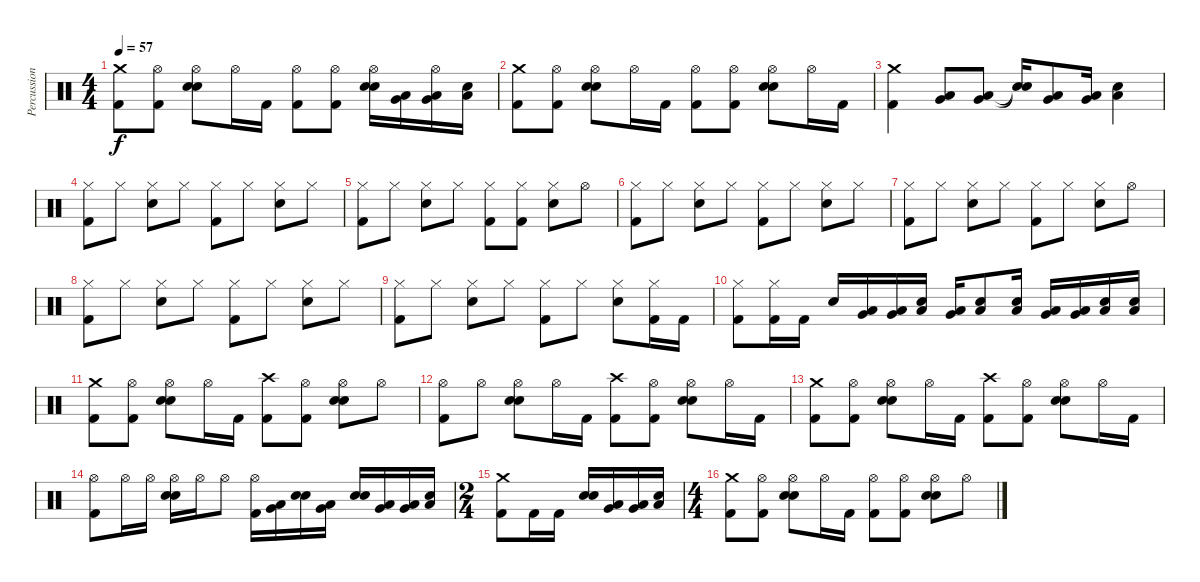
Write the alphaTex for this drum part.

\track ("Percussion" "Percussion") {instrument percussion}
\staff {score}
\articulation defaults
\ts (4 4)
\tempo 57
\clef neutral
\ks c
("Crash medium (hit)" "Kick (hit) 2").8{dy f} ("Hi-Hat (open)" "Kick (hit) 2").8 ("Hi-Hat (open)" "Electric Snare (hit)" "Metronome (bell)").8 "Hi-Hat (open)".16 "Kick (hit) 2".16 ("Hi-Hat (open)" "Kick (hit) 2").8 ("Hi-Hat (open)" "Kick (hit) 2").8 ("Hi-Hat (open)" "Electric Snare (hit)" "Metronome (bell)").16 ("Low Tom (hit)" "Very Low Tom (hit)").16 ("Hi-Hat (open)" "Very Low Tom (hit)" "Low Floor Tom (hit)").16 ("Low Floor Tom (hit)" "Snare (hit)").16 |
("Crash medium (hit)" "Kick (hit) 2").8 ("Hi-Hat (open)" "Kick (hit) 2").8 ("Hi-Hat (open)" "Electric Snare (hit)" "Metronome (bell)").8 "Hi-Hat (open)".16 "Kick (hit) 2".16 ("Hi-Hat (open)" "Kick (hit) 2").8 ("Hi-Hat (open)" "Kick (hit) 2").8 ("Hi-Hat (open)" "Electric Snare (hit)" "Metronome (bell)").8 "Hi-Hat (open)".16 "Kick (hit) 2".16 |
("Crash medium (hit)" "Kick (hit) 2").4 ("Low Tom (hit)" "Very Low Tom (hit)").8 ("Very Low Tom (hit)" "Low Floor Tom (hit)").8 ("Snare (hit)"{t} "Snare (hit)"{t}).16 ("Low Tom (hit)" "Very Low Tom (hit)").8 ("Very Low Tom (hit)" "Low Floor Tom (hit)").16 ("Low Floor Tom (hit)" "Snare (hit)").4 |
("Hi-Hat (closed)" "Kick (hit) 2").8 "Hi-Hat (closed)".8 ("Hi-Hat (closed)" "Metronome (bell)").8 "Hi-Hat (closed)".8 ("Hi-Hat (closed)" "Kick (hit) 2").8 "Hi-Hat (closed)".8 ("Hi-Hat (closed)" "Metronome (bell)").8 "Hi-Hat (closed)".8 |
("Hi-Hat (closed)" "Kick (hit) 2").8 "Hi-Hat (closed)".8 ("Hi-Hat (closed)" "Metronome (bell)").8 "Hi-Hat (closed)".8 ("Hi-Hat (closed)" "Kick (hit) 2").8 ("Hi-Hat (closed)" "Kick (hit) 2").8 ("Hi-Hat (closed)" "Metronome (bell)").8 "Hi-Hat (open)".8 |
("Hi-Hat (closed)" "Kick (hit) 2").8 "Hi-Hat (closed)".8 ("Hi-Hat (closed)" "Metronome (bell)").8 "Hi-Hat (closed)".8 ("Hi-Hat (closed)" "Kick (hit) 2").8 "Hi-Hat (closed)".8 ("Hi-Hat (closed)" "Metronome (bell)").8 "Hi-Hat (closed)".8 |
("Hi-Hat (closed)" "Kick (hit) 2").8 "Hi-Hat (closed)".8 ("Hi-Hat (closed)" "Metronome (bell)").8 "Hi-Hat (closed)".8 ("Hi-Hat (closed)" "Kick (hit) 2").8 "Hi-Hat (closed)".8 ("Hi-Hat (closed)" "Metronome (bell)").8 "Hi-Hat (open)".8 |
("Hi-Hat (closed)" "Kick (hit) 2").8 "Hi-Hat (closed)".8 ("Hi-Hat (closed)" "Metronome (bell)").8 "Hi-Hat (closed)".8 ("Hi-Hat (closed)" "Kick (hit) 2").8 "Hi-Hat (closed)".8 ("Hi-Hat (closed)" "Metronome (bell)").8 "Hi-Hat (closed)".8 |
("Hi-Hat (closed)" "Kick (hit) 2").8 "Hi-Hat (closed)".8 ("Hi-Hat (closed)" "Metronome (bell)").8 "Hi-Hat (closed)".8 ("Hi-Hat (closed)" "Kick (hit) 2").8 "Hi-Hat (closed)".8 ("Hi-Hat (closed)" "Metronome (bell)").8 ("Hi-Hat (closed)" "Kick (hit) 2").16 "Kick (hit) 2".16 |
("Hi-Hat (closed)" "Kick (hit) 2").8 ("Hi-Hat (closed)" "Kick (hit) 2").16 "Kick (hit) 2".16 "Metronome (bell)".16 ("Low Tom (hit)" "Very Low Tom (hit)").16 ("Very Low Tom (hit)" "Low Floor Tom (hit)").16 ("Low Floor Tom (hit)" "Snare (hit)").16 ("Very Low Tom (hit)" "Low Floor Tom (hit)").16 ("Low Floor Tom (hit)" "Snare (hit)").8 ("Low Floor Tom (hit)" "Snare (hit)").16 ("Low Tom (hit)" "Very Low Tom (hit)").16 ("Very Low Tom (hit)" "Low Floor Tom (hit)").16 ("Low Floor Tom (hit)" "Snare (hit)").16 ("Low Floor Tom (hit)" "Snare (hit)").16 |
("Crash medium (hit)" "Kick (hit) 2").8 ("Hi-Hat (open)" "Kick (hit) 2").8 ("Hi-Hat (open)" "Electric Snare (hit)" "Metronome (bell)").8 "Hi-Hat (open)".16 "Kick (hit) 2".16 ("Crash high (hit)" "Kick (hit) 2").8 ("Hi-Hat (open)" "Kick (hit) 2").8 ("Hi-Hat (open)" "Electric Snare (hit)" "Metronome (bell)").8 "Hi-Hat (open)".8 |
("Hi-Hat (open)" "Kick (hit) 2").8 "Hi-Hat (open)".8 ("Hi-Hat (open)" "Electric Snare (hit)" "Metronome (bell)").8 "Hi-Hat (open)".16 "Kick (hit) 2".16 ("Crash high (hit)" "Kick (hit) 2").8 ("Hi-Hat (open)" "Kick (hit) 2").8 ("Hi-Hat (open)" "Electric Snare (hit)" "Metronome (bell)").8 "Hi-Hat (open)".16 "Kick (hit) 2".16 |
("Crash medium (hit)" "Kick (hit) 2").8 ("Hi-Hat (open)" "Kick (hit) 2").8 ("Hi-Hat (open)" "Electric Snare (hit)" "Metronome (bell)").8 "Hi-Hat (open)".16 "Kick (hit) 2".16 ("Crash high (hit)" "Kick (hit) 2").8 ("Hi-Hat (open)" "Kick (hit) 2").8 ("Hi-Hat (open)" "Electric Snare (hit)" "Metronome (bell)").8 "Hi-Hat (open)".16 "Kick (hit) 2".16 |
("Hi-Hat (open)" "Kick (hit) 2").8 "Hi-Hat (open)".16 "Hi-Hat (open)".16 ("Hi-Hat (open)" "Electric Snare (hit)" "Metronome (bell)").16 "Hi-Hat (open)".16 "Hi-Hat (open)".8 ("Hi-Hat (open)" "Kick (hit) 2").16 ("Low Tom (hit)" "Very Low Tom (hit)").16 ("Electric Snare (hit)" "Metronome (bell)").16 ("Very Low Tom (hit)" "Low Floor Tom (hit)").16 ("Electric Snare (hit)" "Metronome (bell)").16 ("Low Tom (hit)" "Very Low Tom (hit)").16 ("Very Low Tom (hit)" "Low Floor Tom (hit)").16 ("Low Floor Tom (hit)" "Snare (hit)").16 |
\ts (2 4)
("Crash medium (hit)" "Kick (hit) 2").8 "Kick (hit) 2".16 "Kick (hit) 2".16 ("Electric Snare (hit)" "Metronome (bell)").16 ("Low Tom (hit)" "Very Low Tom (hit)").16 ("Very Low Tom (hit)" "Low Floor Tom (hit)").16 ("Low Floor Tom (hit)" "Snare (hit)").16 |
\ts (4 4)
("Crash medium (hit)" "Kick (hit) 2").8 ("Hi-Hat (open)" "Kick (hit) 2").8 ("Hi-Hat (open)" "Electric Snare (hit)" "Metronome (bell)").8 "Hi-Hat (open)".16 "Kick (hit) 2".16 ("Hi-Hat (open)" "Kick (hit) 2").8 ("Hi-Hat (open)" "Kick (hit) 2").8 ("Hi-Hat (open)" "Electric Snare (hit)" "Metronome (bell)").8 "Hi-Hat (open)".8
